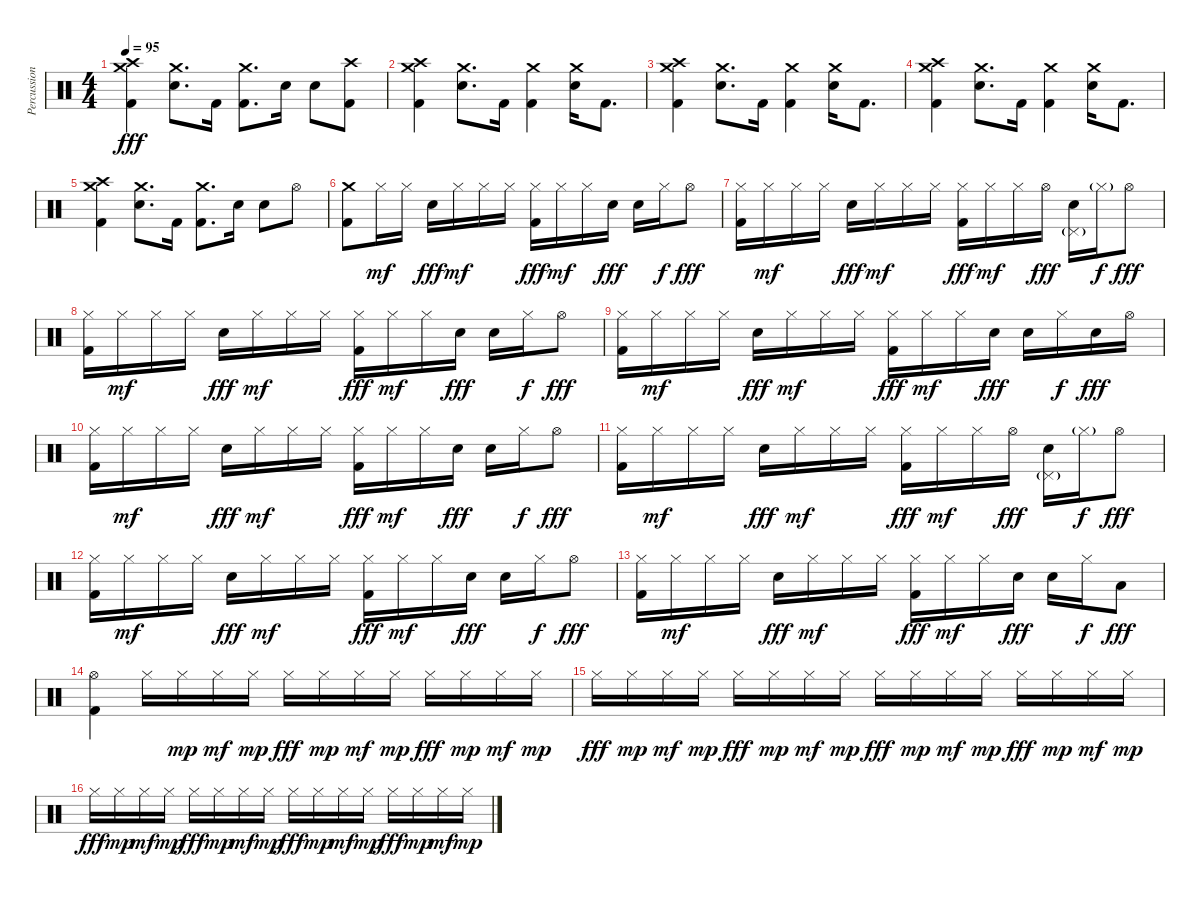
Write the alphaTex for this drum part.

\track ("Percussion" "Percussion") {instrument percussion}
\staff {score}
\articulation defaults
\ts (4 4)
\tempo 95
\clef neutral
\ks c
("Crash high (hit)" "Crash medium (hit)" "Kick (hit) 2").4{dy fff} ("Crash medium (hit)" "Electric Snare (hit)").8{d} "Kick (hit) 2".16 ("Crash medium (hit)" "Kick (hit) 2").8{d} "Electric Snare (hit)".16 "Electric Snare (hit)".8 ("Crash high (hit)" "Kick (hit) 2").8 |
("Crash high (hit)" "Crash medium (hit)" "Kick (hit) 2").4 ("Crash medium (hit)" "Electric Snare (hit)").8{d} "Kick (hit) 2".16 ("Crash medium (hit)" "Kick (hit) 2").4 ("Crash medium (hit)" "Electric Snare (hit)").16 "Kick (hit) 2".8{d} |
("Crash high (hit)" "Crash medium (hit)" "Kick (hit) 2").4 ("Crash medium (hit)" "Electric Snare (hit)").8{d} "Kick (hit) 2".16 ("Crash medium (hit)" "Kick (hit) 2").4 ("Crash medium (hit)" "Electric Snare (hit)").16 "Kick (hit) 2".8{d} |
("Crash high (hit)" "Crash medium (hit)" "Kick (hit) 2").4 ("Crash medium (hit)" "Electric Snare (hit)").8{d} "Kick (hit) 2".16 ("Crash medium (hit)" "Kick (hit) 2").4 ("Crash medium (hit)" "Electric Snare (hit)").16 "Kick (hit) 2".8{d} |
("Crash high (hit)" "Crash medium (hit)" "Kick (hit) 2").4 ("Crash medium (hit)" "Electric Snare (hit)").8{d} "Kick (hit) 2".16 ("Crash medium (hit)" "Kick (hit) 2").8{d} "Electric Snare (hit)".16 "Electric Snare (hit)".8 "Hi-Hat (open)".8 |
("Crash medium (hit)" "Kick (hit) 2").8 "Hi-Hat (closed)".16{dy mf} "Hi-Hat (closed)".16 "Electric Snare (hit)".16{dy fff} "Hi-Hat (closed)".16{dy mf} "Hi-Hat (closed)".16 "Hi-Hat (closed)".16 ("Hi-Hat (closed)" "Kick (hit) 2").16{dy fff} "Hi-Hat (closed)".16{dy mf} "Hi-Hat (closed)".16 "Electric Snare (hit)".16{dy fff} "Electric Snare (hit)".16 "Hi-Hat (closed)".16{dy f} "Hi-Hat (open)".8{dy fff} |
("Hi-Hat (closed)" "Kick (hit) 2").16 "Hi-Hat (closed)".16{dy mf} "Hi-Hat (closed)".16 "Hi-Hat (closed)".16 "Electric Snare (hit)".16{dy fff} "Hi-Hat (closed)".16{dy mf} "Hi-Hat (closed)".16 "Hi-Hat (closed)".16 ("Hi-Hat (closed)" "Kick (hit) 2").16{dy fff} "Hi-Hat (closed)".16{dy mf} "Hi-Hat (closed)".16 "Hi-Hat (open)".16{dy fff} ("Pedal Hi-Hat (hit)"{g} "Electric Snare (hit)").16 "Hi-Hat (closed)"{g}.16{dy f} "Hi-Hat (open)".8{dy fff} |
("Hi-Hat (closed)" "Kick (hit) 2").16 "Hi-Hat (closed)".16{dy mf} "Hi-Hat (closed)".16 "Hi-Hat (closed)".16 "Electric Snare (hit)".16{dy fff} "Hi-Hat (closed)".16{dy mf} "Hi-Hat (closed)".16 "Hi-Hat (closed)".16 ("Hi-Hat (closed)" "Kick (hit) 2").16{dy fff} "Hi-Hat (closed)".16{dy mf} "Hi-Hat (closed)".16 "Electric Snare (hit)".16{dy fff} "Electric Snare (hit)".16 "Hi-Hat (closed)".16{dy f} "Hi-Hat (open)".8{dy fff} |
("Hi-Hat (closed)" "Kick (hit) 2").16 "Hi-Hat (closed)".16{dy mf} "Hi-Hat (closed)".16 "Hi-Hat (closed)".16 "Electric Snare (hit)".16{dy fff} "Hi-Hat (closed)".16{dy mf} "Hi-Hat (closed)".16 "Hi-Hat (closed)".16 ("Hi-Hat (closed)" "Kick (hit) 2").16{dy fff} "Hi-Hat (closed)".16{dy mf} "Hi-Hat (closed)".16 "Electric Snare (hit)".16{dy fff} "Electric Snare (hit)".16 "Hi-Hat (closed)".16{dy f} "Electric Snare (hit)".16{dy fff} "Hi-Hat (open)".16 |
("Hi-Hat (closed)" "Kick (hit) 2").16 "Hi-Hat (closed)".16{dy mf} "Hi-Hat (closed)".16 "Hi-Hat (closed)".16 "Electric Snare (hit)".16{dy fff} "Hi-Hat (closed)".16{dy mf} "Hi-Hat (closed)".16 "Hi-Hat (closed)".16 ("Hi-Hat (closed)" "Kick (hit) 2").16{dy fff} "Hi-Hat (closed)".16{dy mf} "Hi-Hat (closed)".16 "Electric Snare (hit)".16{dy fff} "Electric Snare (hit)".16 "Hi-Hat (closed)".16{dy f} "Hi-Hat (open)".8{dy fff} |
("Hi-Hat (closed)" "Kick (hit) 2").16 "Hi-Hat (closed)".16{dy mf} "Hi-Hat (closed)".16 "Hi-Hat (closed)".16 "Electric Snare (hit)".16{dy fff} "Hi-Hat (closed)".16{dy mf} "Hi-Hat (closed)".16 "Hi-Hat (closed)".16 ("Hi-Hat (closed)" "Kick (hit) 2").16{dy fff} "Hi-Hat (closed)".16{dy mf} "Hi-Hat (closed)".16 "Hi-Hat (open)".16{dy fff} ("Pedal Hi-Hat (hit)"{g} "Electric Snare (hit)").16 "Hi-Hat (closed)"{g}.16{dy f} "Hi-Hat (open)".8{dy fff} |
("Hi-Hat (closed)" "Kick (hit) 2").16 "Hi-Hat (closed)".16{dy mf} "Hi-Hat (closed)".16 "Hi-Hat (closed)".16 "Electric Snare (hit)".16{dy fff} "Hi-Hat (closed)".16{dy mf} "Hi-Hat (closed)".16 "Hi-Hat (closed)".16 ("Hi-Hat (closed)" "Kick (hit) 2").16{dy fff} "Hi-Hat (closed)".16{dy mf} "Hi-Hat (closed)".16 "Electric Snare (hit)".16{dy fff} "Electric Snare (hit)".16 "Hi-Hat (closed)".16{dy f} "Hi-Hat (open)".8{dy fff} |
("Hi-Hat (closed)" "Kick (hit) 2").16 "Hi-Hat (closed)".16{dy mf} "Hi-Hat (closed)".16 "Hi-Hat (closed)".16 "Electric Snare (hit)".16{dy fff} "Hi-Hat (closed)".16{dy mf} "Hi-Hat (closed)".16 "Hi-Hat (closed)".16 ("Hi-Hat (closed)" "Kick (hit) 2").16{dy fff} "Hi-Hat (closed)".16{dy mf} "Hi-Hat (closed)".16 "Electric Snare (hit)".16{dy fff} "Electric Snare (hit)".16 "Hi-Hat (closed)".16{dy f} "Low Tom (hit)".8{dy fff} |
("Hi-Hat (open)" "Kick (hit) 2").4 "Hi-Hat (closed)".16 "Hi-Hat (closed)".16{dy mp} "Hi-Hat (closed)".16{dy mf} "Hi-Hat (closed)".16{dy mp} "Hi-Hat (closed)".16{dy fff} "Hi-Hat (closed)".16{dy mp} "Hi-Hat (closed)".16{dy mf} "Hi-Hat (closed)".16{dy mp} "Hi-Hat (closed)".16{dy fff} "Hi-Hat (closed)".16{dy mp} "Hi-Hat (closed)".16{dy mf} "Hi-Hat (closed)".16{dy mp} |
"Hi-Hat (closed)".16{dy fff} "Hi-Hat (closed)".16{dy mp} "Hi-Hat (closed)".16{dy mf} "Hi-Hat (closed)".16{dy mp} "Hi-Hat (closed)".16{dy fff} "Hi-Hat (closed)".16{dy mp} "Hi-Hat (closed)".16{dy mf} "Hi-Hat (closed)".16{dy mp} "Hi-Hat (closed)".16{dy fff} "Hi-Hat (closed)".16{dy mp} "Hi-Hat (closed)".16{dy mf} "Hi-Hat (closed)".16{dy mp} "Hi-Hat (closed)".16{dy fff} "Hi-Hat (closed)".16{dy mp} "Hi-Hat (closed)".16{dy mf} "Hi-Hat (closed)".16{dy mp} |
"Hi-Hat (closed)".16{dy fff} "Hi-Hat (closed)".16{dy mp} "Hi-Hat (closed)".16{dy mf} "Hi-Hat (closed)".16{dy mp} "Hi-Hat (closed)".16{dy fff} "Hi-Hat (closed)".16{dy mp} "Hi-Hat (closed)".16{dy mf} "Hi-Hat (closed)".16{dy mp} "Hi-Hat (closed)".16{dy fff} "Hi-Hat (closed)".16{dy mp} "Hi-Hat (closed)".16{dy mf} "Hi-Hat (closed)".16{dy mp} "Hi-Hat (closed)".16{dy fff} "Hi-Hat (closed)".16{dy mp} "Hi-Hat (closed)".16{dy mf} "Hi-Hat (closed)".16{dy mp}
